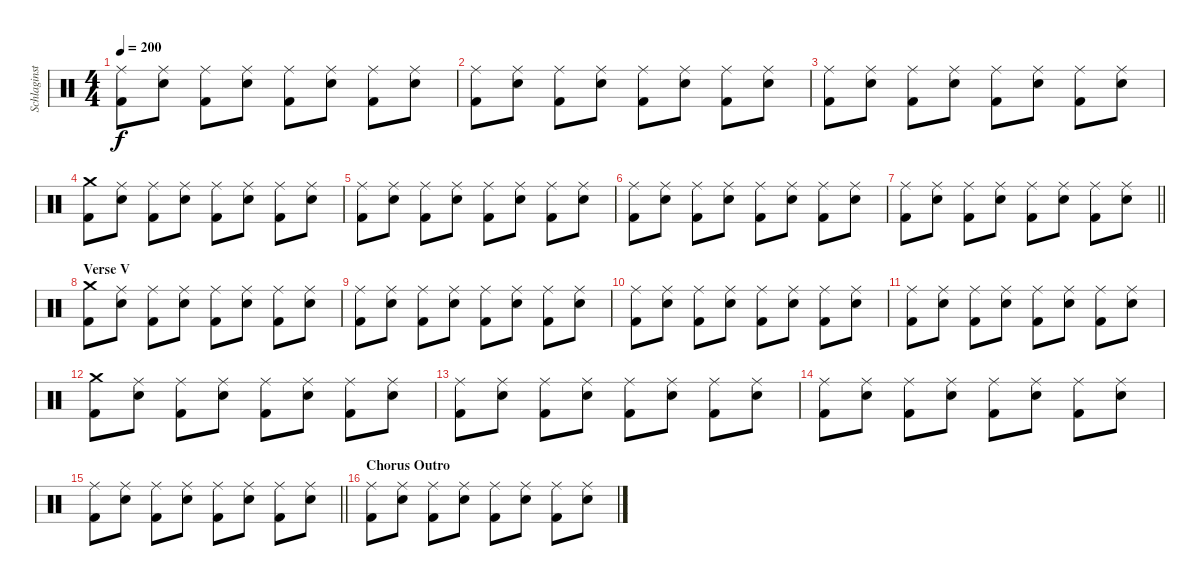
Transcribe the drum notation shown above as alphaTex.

\track ("Schlaginstrumente - Auswahl" "Schlaginst") {instrument percussion}
\staff {score}
\articulation defaults
\ts (4 4)
\tempo 200
\clef neutral
\ks c
("Ride (middle)" "Kick (hit) 2").8{dy f} ("Ride (middle)" "Electric Snare (hit)").8 ("Ride (middle)" "Kick (hit) 2").8 ("Ride (middle)" "Electric Snare (hit)").8 ("Ride (middle)" "Kick (hit) 2").8 ("Ride (middle)" "Electric Snare (hit)").8 ("Ride (middle)" "Kick (hit) 2").8 ("Ride (middle)" "Electric Snare (hit)").8 |
("Ride (middle)" "Kick (hit) 2").8 ("Ride (middle)" "Electric Snare (hit)").8 ("Ride (middle)" "Kick (hit) 2").8 ("Ride (middle)" "Electric Snare (hit)").8 ("Ride (middle)" "Kick (hit) 2").8 ("Ride (middle)" "Electric Snare (hit)").8 ("Ride (middle)" "Kick (hit) 2").8 ("Ride (middle)" "Electric Snare (hit)").8 |
("Ride (middle)" "Kick (hit) 2").8 ("Ride (middle)" "Electric Snare (hit)").8 ("Ride (middle)" "Kick (hit) 2").8 ("Ride (middle)" "Electric Snare (hit)").8 ("Ride (middle)" "Kick (hit) 2").8 ("Ride (middle)" "Electric Snare (hit)").8 ("Ride (middle)" "Kick (hit) 2").8 ("Ride (middle)" "Electric Snare (hit)").8 |
("Crash medium (hit)" "Kick (hit) 2").8 ("Ride (middle)" "Electric Snare (hit)").8 ("Ride (middle)" "Kick (hit) 2").8 ("Ride (middle)" "Electric Snare (hit)").8 ("Ride (middle)" "Kick (hit) 2").8 ("Ride (middle)" "Electric Snare (hit)").8 ("Ride (middle)" "Kick (hit) 2").8 ("Ride (middle)" "Electric Snare (hit)").8 |
("Ride (middle)" "Kick (hit) 2").8 ("Ride (middle)" "Electric Snare (hit)").8 ("Ride (middle)" "Kick (hit) 2").8 ("Ride (middle)" "Electric Snare (hit)").8 ("Ride (middle)" "Kick (hit) 2").8 ("Ride (middle)" "Electric Snare (hit)").8 ("Ride (middle)" "Kick (hit) 2").8 ("Ride (middle)" "Electric Snare (hit)").8 |
("Ride (middle)" "Kick (hit) 2").8 ("Ride (middle)" "Electric Snare (hit)").8 ("Ride (middle)" "Kick (hit) 2").8 ("Ride (middle)" "Electric Snare (hit)").8 ("Ride (middle)" "Kick (hit) 2").8 ("Ride (middle)" "Electric Snare (hit)").8 ("Ride (middle)" "Kick (hit) 2").8 ("Ride (middle)" "Electric Snare (hit)").8 |
\barLineRight lightlight
("Ride (middle)" "Kick (hit) 2").8 ("Ride (middle)" "Electric Snare (hit)").8 ("Ride (middle)" "Kick (hit) 2").8 ("Ride (middle)" "Electric Snare (hit)").8 ("Ride (middle)" "Kick (hit) 2").8 ("Ride (middle)" "Electric Snare (hit)").8 ("Ride (middle)" "Kick (hit) 2").8 ("Ride (middle)" "Electric Snare (hit)").8 |
\section ("" "Verse V")
("Crash medium (hit)" "Kick (hit) 2").8 ("Ride (middle)" "Electric Snare (hit)").8 ("Ride (middle)" "Kick (hit) 2").8 ("Ride (middle)" "Electric Snare (hit)").8 ("Ride (middle)" "Kick (hit) 2").8 ("Ride (middle)" "Electric Snare (hit)").8 ("Ride (middle)" "Kick (hit) 2").8 ("Ride (middle)" "Electric Snare (hit)").8 |
("Ride (middle)" "Kick (hit) 2").8 ("Ride (middle)" "Electric Snare (hit)").8 ("Ride (middle)" "Kick (hit) 2").8 ("Ride (middle)" "Electric Snare (hit)").8 ("Ride (middle)" "Kick (hit) 2").8 ("Ride (middle)" "Electric Snare (hit)").8 ("Ride (middle)" "Kick (hit) 2").8 ("Ride (middle)" "Electric Snare (hit)").8 |
("Ride (middle)" "Kick (hit) 2").8 ("Ride (middle)" "Electric Snare (hit)").8 ("Ride (middle)" "Kick (hit) 2").8 ("Ride (middle)" "Electric Snare (hit)").8 ("Ride (middle)" "Kick (hit) 2").8 ("Ride (middle)" "Electric Snare (hit)").8 ("Ride (middle)" "Kick (hit) 2").8 ("Ride (middle)" "Electric Snare (hit)").8 |
("Ride (middle)" "Kick (hit) 2").8 ("Ride (middle)" "Electric Snare (hit)").8 ("Ride (middle)" "Kick (hit) 2").8 ("Ride (middle)" "Electric Snare (hit)").8 ("Ride (middle)" "Kick (hit) 2").8 ("Ride (middle)" "Electric Snare (hit)").8 ("Ride (middle)" "Kick (hit) 2").8 ("Ride (middle)" "Electric Snare (hit)").8 |
("Crash medium (hit)" "Kick (hit) 2").8 ("Ride (middle)" "Electric Snare (hit)").8 ("Ride (middle)" "Kick (hit) 2").8 ("Ride (middle)" "Electric Snare (hit)").8 ("Ride (middle)" "Kick (hit) 2").8 ("Ride (middle)" "Electric Snare (hit)").8 ("Ride (middle)" "Kick (hit) 2").8 ("Ride (middle)" "Electric Snare (hit)").8 |
("Ride (middle)" "Kick (hit) 2").8 ("Ride (middle)" "Electric Snare (hit)").8 ("Ride (middle)" "Kick (hit) 2").8 ("Ride (middle)" "Electric Snare (hit)").8 ("Ride (middle)" "Kick (hit) 2").8 ("Ride (middle)" "Electric Snare (hit)").8 ("Ride (middle)" "Kick (hit) 2").8 ("Ride (middle)" "Electric Snare (hit)").8 |
("Ride (middle)" "Kick (hit) 2").8 ("Ride (middle)" "Electric Snare (hit)").8 ("Ride (middle)" "Kick (hit) 2").8 ("Ride (middle)" "Electric Snare (hit)").8 ("Ride (middle)" "Kick (hit) 2").8 ("Ride (middle)" "Electric Snare (hit)").8 ("Ride (middle)" "Kick (hit) 2").8 ("Ride (middle)" "Electric Snare (hit)").8 |
\barLineRight lightlight
("Ride (middle)" "Kick (hit) 2").8 ("Ride (middle)" "Electric Snare (hit)").8 ("Ride (middle)" "Kick (hit) 2").8 ("Ride (middle)" "Electric Snare (hit)").8 ("Ride (middle)" "Kick (hit) 2").8 ("Ride (middle)" "Electric Snare (hit)").8 ("Ride (middle)" "Kick (hit) 2").8 ("Ride (middle)" "Electric Snare (hit)").8 |
\section ("" "Chorus Outro")
("Ride (middle)" "Kick (hit) 2").8 ("Ride (middle)" "Electric Snare (hit)").8 ("Ride (middle)" "Kick (hit) 2").8 ("Ride (middle)" "Electric Snare (hit)").8 ("Ride (middle)" "Kick (hit) 2").8 ("Ride (middle)" "Electric Snare (hit)").8 ("Ride (middle)" "Kick (hit) 2").8 ("Ride (middle)" "Electric Snare (hit)").8
